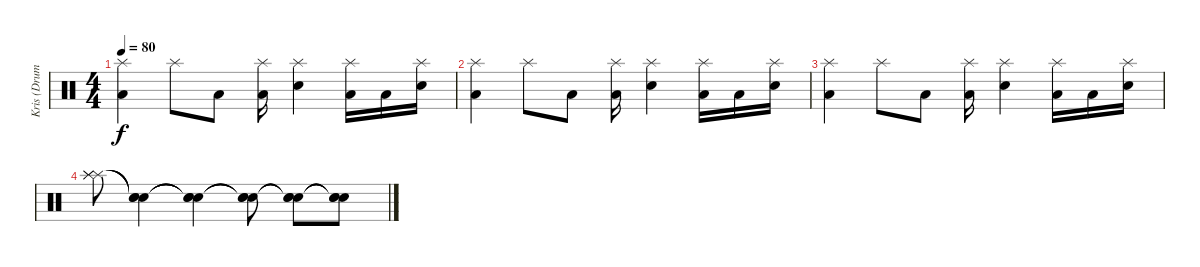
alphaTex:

\track ("Kris (Drums)" "Kris (Drum") {instrument percussion}
\staff {score}
\articulation defaults
\ts (4 4)
\tempo 80
\clef neutral
\ks c
("Splash (hit)" "Low Tom (hit)").4{dy f} "Splash (hit)".8 "Low Tom (hit)".8 ("Splash (hit)" "Low Tom (hit)").16 ("Splash (hit)" "Metronome (bell)").4 ("Splash (hit)" "Low Tom (hit)").16 "Low Tom (hit)".16 ("Splash (hit)" "Metronome (bell)").16 |
("Splash (hit)" "Low Tom (hit)").4 "Splash (hit)".8 "Low Tom (hit)".8 ("Splash (hit)" "Low Tom (hit)").16 ("Splash (hit)" "Metronome (bell)").4 ("Splash (hit)" "Low Tom (hit)").16 "Low Tom (hit)".16 ("Splash (hit)" "Metronome (bell)").16 |
("Splash (hit)" "Low Tom (hit)").4 "Splash (hit)".8 "Low Tom (hit)".8 ("Splash (hit)" "Low Tom (hit)").16 ("Splash (hit)" "Metronome (bell)").4 ("Splash (hit)" "Low Tom (hit)").16 "Low Tom (hit)".16 ("Splash (hit)" "Metronome (bell)").16 |
("Splash (hit)" "Splash (hit)" "Splash (hit)").8 ("Snare (hit)"{t} "Snare (hit)"{t} "Snare (hit)"{t}).4 ("Snare (hit)"{t} "Snare (hit)"{t} "Snare (hit)"{t}).4 ("Snare (hit)"{t} "Snare (hit)"{t} "Snare (hit)"{t}).8 ("Snare (hit)"{t} "Snare (hit)"{t} "Snare (hit)"{t}).8 ("Snare (hit)"{t} "Snare (hit)"{t} "Snare (hit)"{t}).8
